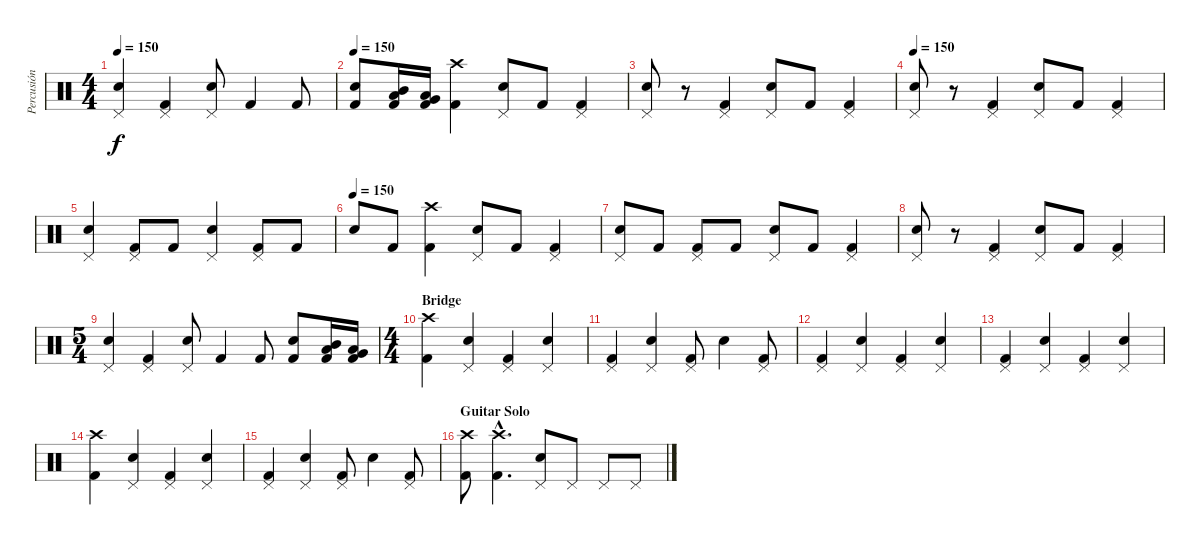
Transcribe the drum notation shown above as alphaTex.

\track ("Percusión" "Percusión") {instrument percussion}
\staff {score}
\articulation defaults
\ts (4 4)
\tempo 150
\clef neutral
\ks c
("Pedal Hi-Hat (hit)" "Electric Snare (hit)").4{dy f} ("Pedal Hi-Hat (hit)" "Kick (hit) 2").4 ("Pedal Hi-Hat (hit)" "Electric Snare (hit)").8 "Kick (hit) 2".4 "Kick (hit) 2".8 |
\tempo 150
("Electric Snare (hit)" "Kick (hit) 2").8 ("Mid Tom (hit)" "Low Tom (hit)" "Kick (hit) 2").16 ("Low Tom (hit)" "Very Low Tom (hit)" "Kick (hit) 2").16 ("Crash high (hit)" "Kick (hit) 2").4 ("Pedal Hi-Hat (hit)" "Electric Snare (hit)").8 "Kick (hit) 2".8 ("Pedal Hi-Hat (hit)" "Kick (hit) 2").4 |
("Pedal Hi-Hat (hit)" "Electric Snare (hit)").8 r.8 ("Pedal Hi-Hat (hit)" "Kick (hit) 2").4 ("Pedal Hi-Hat (hit)" "Electric Snare (hit)").8 "Kick (hit) 2".8 ("Pedal Hi-Hat (hit)" "Kick (hit) 2").4 |
\tempo 150
("Pedal Hi-Hat (hit)" "Electric Snare (hit)").8 r.8 ("Pedal Hi-Hat (hit)" "Kick (hit) 2").4 ("Pedal Hi-Hat (hit)" "Electric Snare (hit)").8 "Kick (hit) 2".8 ("Pedal Hi-Hat (hit)" "Kick (hit) 2").4 |
("Pedal Hi-Hat (hit)" "Electric Snare (hit)").4 ("Pedal Hi-Hat (hit)" "Kick (hit) 2").8 "Kick (hit) 2".8 ("Pedal Hi-Hat (hit)" "Electric Snare (hit)").4 ("Pedal Hi-Hat (hit)" "Kick (hit) 2").8 "Kick (hit) 2".8 |
\tempo (150)
"Electric Snare (hit)".8 "Kick (hit) 2".8 ("Crash high (hit)" "Kick (hit) 2").4 ("Pedal Hi-Hat (hit)" "Electric Snare (hit)").8 "Kick (hit) 2".8 ("Pedal Hi-Hat (hit)" "Kick (hit) 2").4 |
("Pedal Hi-Hat (hit)" "Electric Snare (hit)").8 "Kick (hit) 2".8 ("Pedal Hi-Hat (hit)" "Kick (hit) 2").8 "Kick (hit) 2".8 ("Pedal Hi-Hat (hit)" "Electric Snare (hit)").8 "Kick (hit) 2".8 ("Pedal Hi-Hat (hit)" "Kick (hit) 2").4 |
("Pedal Hi-Hat (hit)" "Electric Snare (hit)").8 r.8 ("Pedal Hi-Hat (hit)" "Kick (hit) 2").4 ("Pedal Hi-Hat (hit)" "Electric Snare (hit)").8 "Kick (hit) 2".8 ("Pedal Hi-Hat (hit)" "Kick (hit) 2").4 |
\ts (5 4)
("Pedal Hi-Hat (hit)" "Electric Snare (hit)").4 ("Pedal Hi-Hat (hit)" "Kick (hit) 2").4 ("Pedal Hi-Hat (hit)" "Electric Snare (hit)").8 "Kick (hit) 2".4 "Kick (hit) 2".8 ("Electric Snare (hit)" "Kick (hit) 2").8 ("Mid Tom (hit)" "Low Tom (hit)" "Kick (hit) 2").16 ("Very Low Tom (hit)" "Low Tom (hit)" "Kick (hit) 2").16 |
\ts (4 4)
\section ("" "Bridge")
("Crash high (hit)" "Kick (hit) 2").4 ("Pedal Hi-Hat (hit)" "Electric Snare (hit)").4 ("Pedal Hi-Hat (hit)" "Kick (hit) 2").4 ("Pedal Hi-Hat (hit)" "Electric Snare (hit)").4 |
("Pedal Hi-Hat (hit)" "Kick (hit) 2").4 ("Pedal Hi-Hat (hit)" "Electric Snare (hit)").4 ("Pedal Hi-Hat (hit)" "Kick (hit) 2").8 "Electric Snare (hit)".4 ("Pedal Hi-Hat (hit)" "Kick (hit) 2").8 |
("Pedal Hi-Hat (hit)" "Kick (hit) 2").4 ("Pedal Hi-Hat (hit)" "Electric Snare (hit)").4 ("Pedal Hi-Hat (hit)" "Kick (hit) 2").4 ("Pedal Hi-Hat (hit)" "Electric Snare (hit)").4 |
("Pedal Hi-Hat (hit)" "Kick (hit) 2").4 ("Pedal Hi-Hat (hit)" "Electric Snare (hit)").4 ("Pedal Hi-Hat (hit)" "Kick (hit) 2").4 ("Pedal Hi-Hat (hit)" "Electric Snare (hit)").4 |
("Crash high (hit)" "Kick (hit) 2").4 ("Pedal Hi-Hat (hit)" "Electric Snare (hit)").4 ("Pedal Hi-Hat (hit)" "Kick (hit) 2").4 ("Pedal Hi-Hat (hit)" "Electric Snare (hit)").4 |
("Pedal Hi-Hat (hit)" "Kick (hit) 2").4 ("Pedal Hi-Hat (hit)" "Electric Snare (hit)").4 ("Pedal Hi-Hat (hit)" "Kick (hit) 2").8 "Electric Snare (hit)".4 ("Pedal Hi-Hat (hit)" "Kick (hit) 2").8 |
\section ("" "Guitar Solo")
("Crash high (hit)" "Kick (hit) 2").8 ("Crash high (hit)"{hac} "Kick (hit) 2"{hac}).4{d} ("Pedal Hi-Hat (hit)" "Electric Snare (hit)").8 "Pedal Hi-Hat (hit)".8 "Pedal Hi-Hat (hit)".8 "Pedal Hi-Hat (hit)".8
